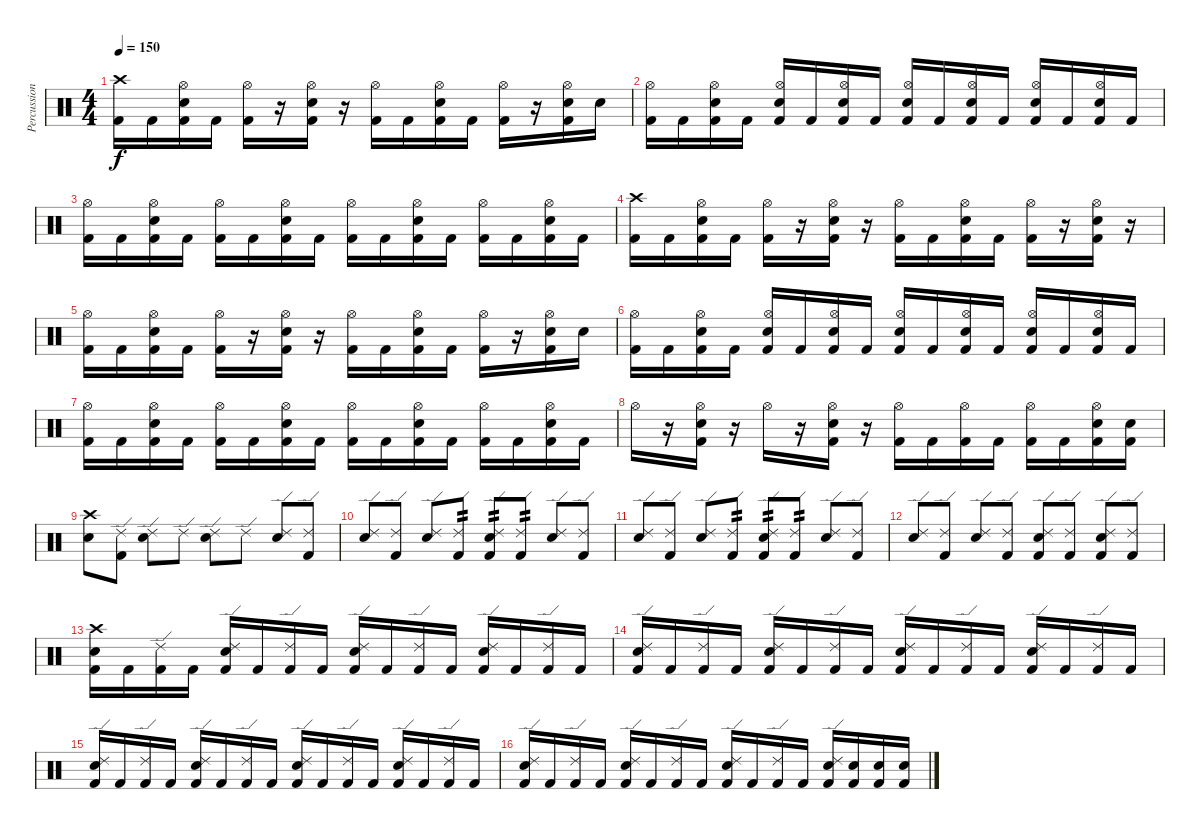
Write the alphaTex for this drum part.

\track ("Percussion" "Percussion") {instrument percussion}
\staff {score}
\articulation defaults
\ts (4 4)
\tempo 150
\clef neutral
\ks c
("Crash high (hit)" "Kick (hit) 2").16{dy f} "Kick (hit) 2".16 ("Hi-Hat (open)" "Electric Snare (hit)" "Kick (hit) 2").16 "Kick (hit) 2".16 ("Hi-Hat (open)" "Kick (hit) 2").16 r.16 ("Hi-Hat (open)" "Electric Snare (hit)" "Kick (hit) 2").16 r.16 ("Hi-Hat (open)" "Kick (hit) 2").16 "Kick (hit) 2".16 ("Hi-Hat (open)" "Electric Snare (hit)" "Kick (hit) 2").16 "Kick (hit) 2".16 ("Hi-Hat (open)" "Kick (hit) 2").16 r.16 ("Hi-Hat (open)" "Electric Snare (hit)" "Kick (hit) 2").16 "Electric Snare (hit)".16 |
("Hi-Hat (open)" "Kick (hit) 2").16 "Kick (hit) 2".16 ("Hi-Hat (open)" "Electric Snare (hit)" "Kick (hit) 2").16 "Kick (hit) 2".16 ("Hi-Hat (open)" "Electric Snare (hit)" "Kick (hit) 2").16 "Kick (hit) 2".16 ("Hi-Hat (open)" "Electric Snare (hit)" "Kick (hit) 2").16 "Kick (hit) 2".16 ("Hi-Hat (open)" "Electric Snare (hit)" "Kick (hit) 2").16 "Kick (hit) 2".16 ("Hi-Hat (open)" "Electric Snare (hit)" "Kick (hit) 2").16 "Kick (hit) 2".16 ("Hi-Hat (open)" "Electric Snare (hit)" "Kick (hit) 2").16 "Kick (hit) 2".16 ("Hi-Hat (open)" "Electric Snare (hit)" "Kick (hit) 2").16 "Kick (hit) 2".16 |
("Hi-Hat (open)" "Kick (hit) 2").16 "Kick (hit) 2".16 ("Hi-Hat (open)" "Electric Snare (hit)" "Kick (hit) 2").16 "Kick (hit) 2".16 ("Hi-Hat (open)" "Kick (hit) 2").16 "Kick (hit) 2".16 ("Hi-Hat (open)" "Electric Snare (hit)" "Kick (hit) 2").16 "Kick (hit) 2".16 ("Hi-Hat (open)" "Kick (hit) 2").16 "Kick (hit) 2".16 ("Hi-Hat (open)" "Electric Snare (hit)" "Kick (hit) 2").16 "Kick (hit) 2".16 ("Hi-Hat (open)" "Kick (hit) 2").16 "Kick (hit) 2".16 ("Hi-Hat (open)" "Electric Snare (hit)" "Kick (hit) 2").16 "Kick (hit) 2".16 |
("Crash high (hit)" "Kick (hit) 2").16 "Kick (hit) 2".16 ("Hi-Hat (open)" "Electric Snare (hit)" "Kick (hit) 2").16 "Kick (hit) 2".16 ("Hi-Hat (open)" "Kick (hit) 2").16 r.16 ("Hi-Hat (open)" "Electric Snare (hit)" "Kick (hit) 2").16 r.16 ("Hi-Hat (open)" "Kick (hit) 2").16 "Kick (hit) 2".16 ("Hi-Hat (open)" "Electric Snare (hit)" "Kick (hit) 2").16 "Kick (hit) 2".16 ("Hi-Hat (open)" "Kick (hit) 2").16 r.16 ("Hi-Hat (open)" "Electric Snare (hit)" "Kick (hit) 2").16 r.16 |
("Hi-Hat (open)" "Kick (hit) 2").16 "Kick (hit) 2".16 ("Hi-Hat (open)" "Electric Snare (hit)" "Kick (hit) 2").16 "Kick (hit) 2".16 ("Hi-Hat (open)" "Kick (hit) 2").16 r.16 ("Hi-Hat (open)" "Electric Snare (hit)" "Kick (hit) 2").16 r.16 ("Hi-Hat (open)" "Kick (hit) 2").16 "Kick (hit) 2".16 ("Hi-Hat (open)" "Electric Snare (hit)" "Kick (hit) 2").16 "Kick (hit) 2".16 ("Hi-Hat (open)" "Kick (hit) 2").16 r.16 ("Hi-Hat (open)" "Electric Snare (hit)" "Kick (hit) 2").16 "Electric Snare (hit)".16 |
("Hi-Hat (open)" "Kick (hit) 2").16 "Kick (hit) 2".16 ("Hi-Hat (open)" "Electric Snare (hit)" "Kick (hit) 2").16 "Kick (hit) 2".16 ("Hi-Hat (open)" "Electric Snare (hit)" "Kick (hit) 2").16 "Kick (hit) 2".16 ("Hi-Hat (open)" "Electric Snare (hit)" "Kick (hit) 2").16 "Kick (hit) 2".16 ("Hi-Hat (open)" "Electric Snare (hit)" "Kick (hit) 2").16 "Kick (hit) 2".16 ("Hi-Hat (open)" "Electric Snare (hit)" "Kick (hit) 2").16 "Kick (hit) 2".16 ("Hi-Hat (open)" "Electric Snare (hit)" "Kick (hit) 2").16 "Kick (hit) 2".16 ("Hi-Hat (open)" "Electric Snare (hit)" "Kick (hit) 2").16 "Kick (hit) 2".16 |
("Hi-Hat (open)" "Kick (hit) 2").16 "Kick (hit) 2".16 ("Hi-Hat (open)" "Electric Snare (hit)" "Kick (hit) 2").16 "Kick (hit) 2".16 ("Hi-Hat (open)" "Kick (hit) 2").16 "Kick (hit) 2".16 ("Hi-Hat (open)" "Electric Snare (hit)" "Kick (hit) 2").16 "Kick (hit) 2".16 ("Hi-Hat (open)" "Kick (hit) 2").16 "Kick (hit) 2".16 ("Hi-Hat (open)" "Electric Snare (hit)" "Kick (hit) 2").16 "Kick (hit) 2".16 ("Hi-Hat (open)" "Kick (hit) 2").16 "Kick (hit) 2".16 ("Hi-Hat (open)" "Electric Snare (hit)" "Kick (hit) 2").16 "Kick (hit) 2".16 |
"Hi-Hat (open)".16 r.16 ("Hi-Hat (open)" "Electric Snare (hit)" "Kick (hit) 2").16 r.16 "Hi-Hat (open)".16 r.16 ("Hi-Hat (open)" "Electric Snare (hit)" "Kick (hit) 2").16 r.16 ("Hi-Hat (open)" "Kick (hit) 2").16 "Kick (hit) 2".16 ("Hi-Hat (open)" "Kick (hit) 2").16 "Kick (hit) 2".16 ("Hi-Hat (open)" "Kick (hit) 2").16 "Kick (hit) 2".16 ("Hi-Hat (open)" "Electric Snare (hit)" "Kick (hit) 2").16 ("Electric Snare (hit)" "Kick (hit) 2").16 |
("Electric Snare (hit)" "Crash high (hit)").8 ("Ride (edge) 2" "Kick (hit) 2").8 ("Electric Snare (hit)" "Ride (edge) 2").8 "Ride (edge) 2".8 ("Electric Snare (hit)" "Ride (edge) 2").8 "Ride (edge) 2".8 ("Electric Snare (hit)" "Ride (edge) 2").8 ("Ride (edge) 2" "Kick (hit) 2").8 |
("Electric Snare (hit)" "Ride (edge) 2").8 ("Ride (edge) 2" "Kick (hit) 2").8 ("Electric Snare (hit)" "Ride (edge) 2").8 ("Ride (edge) 2" "Kick (hit) 2").8{tp 2} ("Electric Snare (hit)" "Ride (edge) 2" "Kick (hit) 2").8{tp 2} ("Ride (edge) 2" "Kick (hit) 2").8{tp 2} ("Electric Snare (hit)" "Ride (edge) 2").8 ("Ride (edge) 2" "Kick (hit) 2").8 |
("Electric Snare (hit)" "Ride (edge) 2").8 ("Ride (edge) 2" "Kick (hit) 2").8 ("Electric Snare (hit)" "Ride (edge) 2").8 ("Ride (edge) 2" "Kick (hit) 2").8{tp 2} ("Electric Snare (hit)" "Ride (edge) 2" "Kick (hit) 2").8{tp 2} ("Ride (edge) 2" "Kick (hit) 2").8{tp 2} ("Electric Snare (hit)" "Ride (edge) 2").8 ("Ride (edge) 2" "Kick (hit) 2").8 |
("Electric Snare (hit)" "Ride (edge) 2").8 ("Ride (edge) 2" "Kick (hit) 2").8 ("Electric Snare (hit)" "Ride (edge) 2").8 ("Ride (edge) 2" "Kick (hit) 2").8 ("Electric Snare (hit)" "Ride (edge) 2" "Kick (hit) 2").8 ("Ride (edge) 2" "Kick (hit) 2").8 ("Electric Snare (hit)" "Ride (edge) 2" "Kick (hit) 2").8 ("Ride (edge) 2" "Kick (hit) 2").8 |
("Electric Snare (hit)" "Crash high (hit)" "Kick (hit) 2").16 "Kick (hit) 2".16 ("Ride (edge) 2" "Kick (hit) 2").16 "Kick (hit) 2".16 ("Electric Snare (hit)" "Ride (edge) 2" "Kick (hit) 2").16 "Kick (hit) 2".16 ("Ride (edge) 2" "Kick (hit) 2").16 "Kick (hit) 2".16 ("Electric Snare (hit)" "Ride (edge) 2" "Kick (hit) 2").16 "Kick (hit) 2".16 ("Ride (edge) 2" "Kick (hit) 2").16 "Kick (hit) 2".16 ("Electric Snare (hit)" "Ride (edge) 2" "Kick (hit) 2").16 "Kick (hit) 2".16 ("Ride (edge) 2" "Kick (hit) 2").16 "Kick (hit) 2".16 |
("Electric Snare (hit)" "Ride (edge) 2" "Kick (hit) 2").16 "Kick (hit) 2".16 ("Ride (edge) 2" "Kick (hit) 2").16 "Kick (hit) 2".16 ("Electric Snare (hit)" "Ride (edge) 2" "Kick (hit) 2").16 "Kick (hit) 2".16 ("Ride (edge) 2" "Kick (hit) 2").16 "Kick (hit) 2".16 ("Electric Snare (hit)" "Ride (edge) 2" "Kick (hit) 2").16 "Kick (hit) 2".16 ("Ride (edge) 2" "Kick (hit) 2").16 "Kick (hit) 2".16 ("Electric Snare (hit)" "Ride (edge) 2" "Kick (hit) 2").16 "Kick (hit) 2".16 ("Ride (edge) 2" "Kick (hit) 2").16 "Kick (hit) 2".16 |
("Electric Snare (hit)" "Ride (edge) 2" "Kick (hit) 2").16 "Kick (hit) 2".16 ("Ride (edge) 2" "Kick (hit) 2").16 "Kick (hit) 2".16 ("Electric Snare (hit)" "Ride (edge) 2" "Kick (hit) 2").16 "Kick (hit) 2".16 ("Ride (edge) 2" "Kick (hit) 2").16 "Kick (hit) 2".16 ("Electric Snare (hit)" "Ride (edge) 2" "Kick (hit) 2").16 "Kick (hit) 2".16 ("Ride (edge) 2" "Kick (hit) 2").16 "Kick (hit) 2".16 ("Electric Snare (hit)" "Ride (edge) 2" "Kick (hit) 2").16 "Kick (hit) 2".16 ("Ride (edge) 2" "Kick (hit) 2").16 "Kick (hit) 2".16 |
("Electric Snare (hit)" "Ride (edge) 2" "Kick (hit) 2").16 "Kick (hit) 2".16 ("Ride (edge) 2" "Kick (hit) 2").16 "Kick (hit) 2".16 ("Electric Snare (hit)" "Ride (edge) 2" "Kick (hit) 2").16 "Kick (hit) 2".16 ("Ride (edge) 2" "Kick (hit) 2").16 "Kick (hit) 2".16 ("Electric Snare (hit)" "Ride (edge) 2" "Kick (hit) 2").16 "Kick (hit) 2".16 ("Ride (edge) 2" "Kick (hit) 2").16 "Kick (hit) 2".16 ("Electric Snare (hit)" "Ride (edge) 2" "Kick (hit) 2").16 ("Electric Snare (hit)" "Kick (hit) 2").16 ("Electric Snare (hit)" "Kick (hit) 2").16 ("Electric Snare (hit)" "Kick (hit) 2").16
